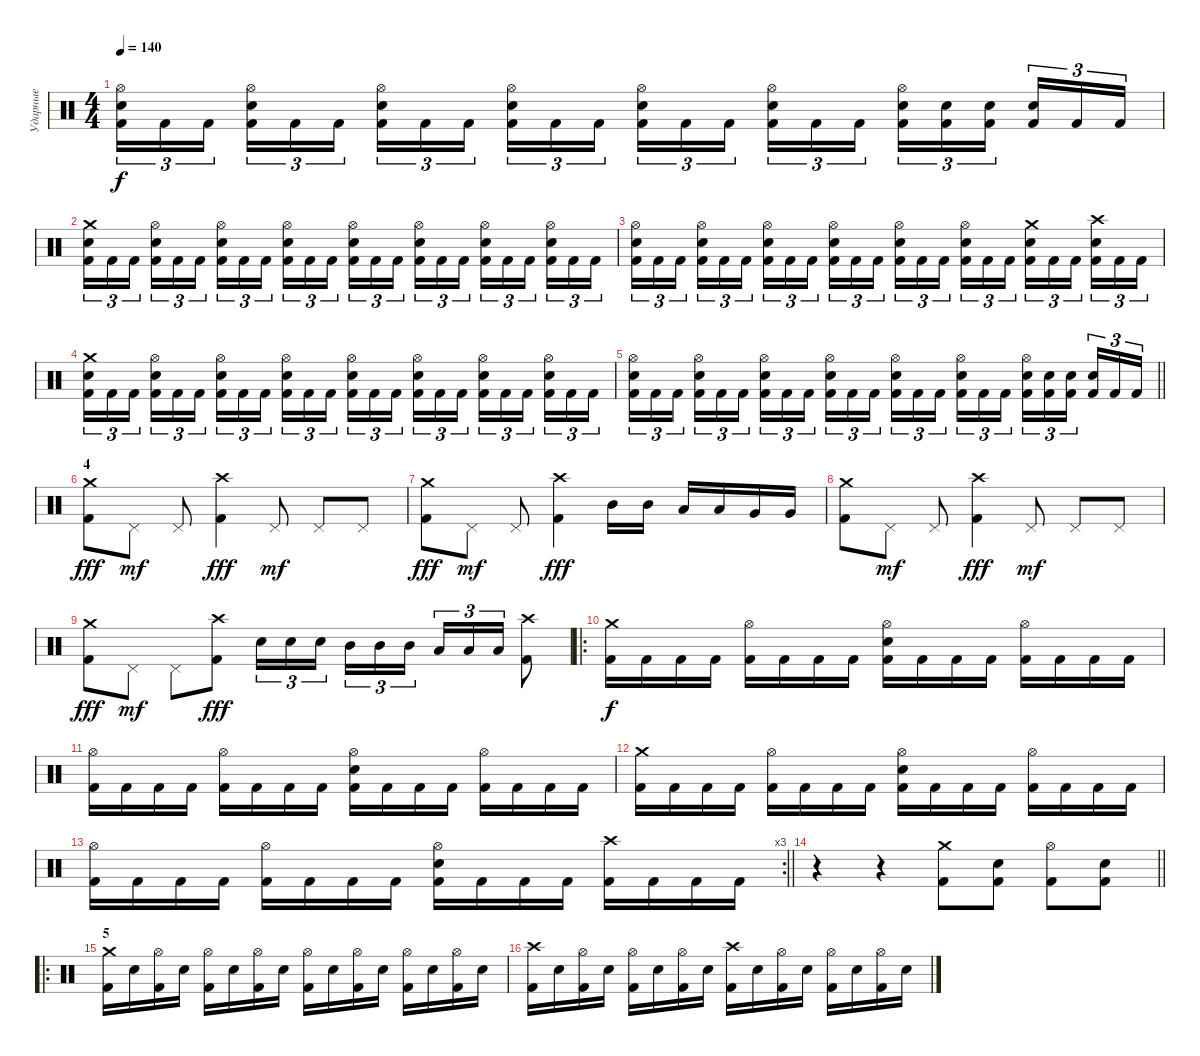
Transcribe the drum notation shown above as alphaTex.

\track ("Ударные" "Ударные") {instrument percussion}
\staff {score}
\articulation defaults
\ts (4 4)
\tempo 140
\clef neutral
\ks c
("Kick (hit) 2" "Electric Snare (hit)" "Hi-Hat (open)").16{tu (3 2) dy f} "Kick (hit) 2".16{tu (3 2)} "Kick (hit) 2".16{tu (3 2) beam splitsecondary} ("Kick (hit) 2" "Electric Snare (hit)" "Hi-Hat (open)").16{tu (3 2)} "Kick (hit) 2".16{tu (3 2)} "Kick (hit) 2".16{tu (3 2)} ("Kick (hit) 2" "Electric Snare (hit)" "Hi-Hat (open)").16{tu (3 2)} "Kick (hit) 2".16{tu (3 2)} "Kick (hit) 2".16{tu (3 2) beam splitsecondary} ("Kick (hit) 2" "Electric Snare (hit)" "Hi-Hat (open)").16{tu (3 2)} "Kick (hit) 2".16{tu (3 2)} "Kick (hit) 2".16{tu (3 2)} ("Kick (hit) 2" "Electric Snare (hit)" "Hi-Hat (open)").16{tu (3 2)} "Kick (hit) 2".16{tu (3 2)} "Kick (hit) 2".16{tu (3 2) beam splitsecondary} ("Kick (hit) 2" "Electric Snare (hit)" "Hi-Hat (open)").16{tu (3 2)} "Kick (hit) 2".16{tu (3 2)} "Kick (hit) 2".16{tu (3 2)} ("Kick (hit) 2" "Electric Snare (hit)" "Hi-Hat (open)").16{tu (3 2)} ("Kick (hit) 2" "Electric Snare (hit)").16{tu (3 2)} ("Kick (hit) 2" "Electric Snare (hit)").16{tu (3 2) beam splitsecondary} ("Kick (hit) 2" "Electric Snare (hit)").16{tu (3 2)} "Kick (hit) 2".16{tu (3 2)} "Kick (hit) 2".16{tu (3 2)} |
("Kick (hit) 2" "Electric Snare (hit)" "Crash medium (hit)").16{tu (3 2)} "Kick (hit) 2".16{tu (3 2)} "Kick (hit) 2".16{tu (3 2) beam splitsecondary} ("Kick (hit) 2" "Electric Snare (hit)" "Hi-Hat (open)").16{tu (3 2)} "Kick (hit) 2".16{tu (3 2)} "Kick (hit) 2".16{tu (3 2)} ("Kick (hit) 2" "Electric Snare (hit)" "Hi-Hat (open)").16{tu (3 2)} "Kick (hit) 2".16{tu (3 2)} "Kick (hit) 2".16{tu (3 2) beam splitsecondary} ("Kick (hit) 2" "Electric Snare (hit)" "Hi-Hat (open)").16{tu (3 2)} "Kick (hit) 2".16{tu (3 2)} "Kick (hit) 2".16{tu (3 2)} ("Kick (hit) 2" "Electric Snare (hit)" "Hi-Hat (open)").16{tu (3 2)} "Kick (hit) 2".16{tu (3 2)} "Kick (hit) 2".16{tu (3 2) beam splitsecondary} ("Kick (hit) 2" "Electric Snare (hit)" "Hi-Hat (open)").16{tu (3 2)} "Kick (hit) 2".16{tu (3 2)} "Kick (hit) 2".16{tu (3 2)} ("Kick (hit) 2" "Electric Snare (hit)" "Hi-Hat (open)").16{tu (3 2)} "Kick (hit) 2".16{tu (3 2)} "Kick (hit) 2".16{tu (3 2) beam splitsecondary} ("Kick (hit) 2" "Electric Snare (hit)" "Hi-Hat (open)").16{tu (3 2)} "Kick (hit) 2".16{tu (3 2)} "Kick (hit) 2".16{tu (3 2)} |
("Kick (hit) 2" "Electric Snare (hit)" "Hi-Hat (open)").16{tu (3 2)} "Kick (hit) 2".16{tu (3 2)} "Kick (hit) 2".16{tu (3 2) beam splitsecondary} ("Kick (hit) 2" "Electric Snare (hit)" "Hi-Hat (open)").16{tu (3 2)} "Kick (hit) 2".16{tu (3 2)} "Kick (hit) 2".16{tu (3 2)} ("Kick (hit) 2" "Electric Snare (hit)" "Hi-Hat (open)").16{tu (3 2)} "Kick (hit) 2".16{tu (3 2)} "Kick (hit) 2".16{tu (3 2) beam splitsecondary} ("Kick (hit) 2" "Electric Snare (hit)" "Hi-Hat (open)").16{tu (3 2)} "Kick (hit) 2".16{tu (3 2)} "Kick (hit) 2".16{tu (3 2)} ("Kick (hit) 2" "Electric Snare (hit)" "Hi-Hat (open)").16{tu (3 2)} "Kick (hit) 2".16{tu (3 2)} "Kick (hit) 2".16{tu (3 2) beam splitsecondary} ("Kick (hit) 2" "Electric Snare (hit)" "Hi-Hat (open)").16{tu (3 2)} "Kick (hit) 2".16{tu (3 2)} "Kick (hit) 2".16{tu (3 2)} ("Kick (hit) 2" "Electric Snare (hit)" "Crash medium (hit)").16{tu (3 2)} "Kick (hit) 2".16{tu (3 2)} "Kick (hit) 2".16{tu (3 2) beam splitsecondary} ("Kick (hit) 2" "Electric Snare (hit)" "Crash high (hit)").16{tu (3 2)} "Kick (hit) 2".16{tu (3 2)} "Kick (hit) 2".16{tu (3 2)} |
("Kick (hit) 2" "Electric Snare (hit)" "Crash medium (hit)").16{tu (3 2)} "Kick (hit) 2".16{tu (3 2)} "Kick (hit) 2".16{tu (3 2) beam splitsecondary} ("Kick (hit) 2" "Electric Snare (hit)" "Hi-Hat (open)").16{tu (3 2)} "Kick (hit) 2".16{tu (3 2)} "Kick (hit) 2".16{tu (3 2)} ("Kick (hit) 2" "Electric Snare (hit)" "Hi-Hat (open)").16{tu (3 2)} "Kick (hit) 2".16{tu (3 2)} "Kick (hit) 2".16{tu (3 2) beam splitsecondary} ("Kick (hit) 2" "Electric Snare (hit)" "Hi-Hat (open)").16{tu (3 2)} "Kick (hit) 2".16{tu (3 2)} "Kick (hit) 2".16{tu (3 2)} ("Kick (hit) 2" "Electric Snare (hit)" "Hi-Hat (open)").16{tu (3 2)} "Kick (hit) 2".16{tu (3 2)} "Kick (hit) 2".16{tu (3 2) beam splitsecondary} ("Kick (hit) 2" "Electric Snare (hit)" "Hi-Hat (open)").16{tu (3 2)} "Kick (hit) 2".16{tu (3 2)} "Kick (hit) 2".16{tu (3 2)} ("Kick (hit) 2" "Electric Snare (hit)" "Hi-Hat (open)").16{tu (3 2)} "Kick (hit) 2".16{tu (3 2)} "Kick (hit) 2".16{tu (3 2) beam splitsecondary} ("Kick (hit) 2" "Electric Snare (hit)" "Hi-Hat (open)").16{tu (3 2)} "Kick (hit) 2".16{tu (3 2)} "Kick (hit) 2".16{tu (3 2)} |
\barLineRight lightlight
("Kick (hit) 2" "Electric Snare (hit)" "Hi-Hat (open)").16{tu (3 2)} "Kick (hit) 2".16{tu (3 2)} "Kick (hit) 2".16{tu (3 2) beam splitsecondary} ("Kick (hit) 2" "Electric Snare (hit)" "Hi-Hat (open)").16{tu (3 2)} "Kick (hit) 2".16{tu (3 2)} "Kick (hit) 2".16{tu (3 2)} ("Kick (hit) 2" "Electric Snare (hit)" "Hi-Hat (open)").16{tu (3 2)} "Kick (hit) 2".16{tu (3 2)} "Kick (hit) 2".16{tu (3 2) beam splitsecondary} ("Kick (hit) 2" "Electric Snare (hit)" "Hi-Hat (open)").16{tu (3 2)} "Kick (hit) 2".16{tu (3 2)} "Kick (hit) 2".16{tu (3 2)} ("Kick (hit) 2" "Electric Snare (hit)" "Hi-Hat (open)").16{tu (3 2)} "Kick (hit) 2".16{tu (3 2)} "Kick (hit) 2".16{tu (3 2) beam splitsecondary} ("Kick (hit) 2" "Electric Snare (hit)" "Hi-Hat (open)").16{tu (3 2)} "Kick (hit) 2".16{tu (3 2)} "Kick (hit) 2".16{tu (3 2)} ("Kick (hit) 2" "Electric Snare (hit)" "Hi-Hat (open)").16{tu (3 2)} ("Kick (hit) 2" "Electric Snare (hit)").16{tu (3 2)} ("Kick (hit) 2" "Electric Snare (hit)").16{tu (3 2) beam splitsecondary} ("Kick (hit) 2" "Electric Snare (hit)").16{tu (3 2)} "Kick (hit) 2".16{tu (3 2)} "Kick (hit) 2".16{tu (3 2)} |
\section ("" "4")
("Kick (hit) 2" "Crash medium (hit)").8{dy fff} "Pedal Hi-Hat (hit)".8{dy mf} "Pedal Hi-Hat (hit)".8 ("Kick (hit) 2" "Crash high (hit)").4{dy fff} "Pedal Hi-Hat (hit)".8{dy mf} "Pedal Hi-Hat (hit)".8 "Pedal Hi-Hat (hit)".8 |
("Kick (hit) 2" "Crash medium (hit)").8{dy fff} "Pedal Hi-Hat (hit)".8{dy mf} "Pedal Hi-Hat (hit)".8 ("Kick (hit) 2" "Crash high (hit)").4{dy fff} "Mid Tom (hit)".16 "Mid Tom (hit)".16 "Low Tom (hit)".16 "Low Tom (hit)".16 "Very Low Tom (hit)".16 "Very Low Tom (hit)".16 |
("Kick (hit) 2" "Crash medium (hit)").8 "Pedal Hi-Hat (hit)".8{dy mf} "Pedal Hi-Hat (hit)".8 ("Kick (hit) 2" "Crash high (hit)").4{dy fff} "Pedal Hi-Hat (hit)".8{dy mf} "Pedal Hi-Hat (hit)".8 "Pedal Hi-Hat (hit)".8 |
("Kick (hit) 2" "Crash medium (hit)").8{dy fff} "Pedal Hi-Hat (hit)".8{dy mf} "Pedal Hi-Hat (hit)".8 ("Kick (hit) 2" "Crash high (hit)").8{dy fff} "Electric Snare (hit)".16{tu (3 2)} "Electric Snare (hit)".16{tu (3 2)} "Electric Snare (hit)".16{tu (3 2) beam splitsecondary} "Mid Tom (hit)".16{tu (3 2)} "Mid Tom (hit)".16{tu (3 2)} "Mid Tom (hit)".16{tu (3 2)} "Low Tom (hit)".16{tu (3 2)} "Low Tom (hit)".16{tu (3 2)} "Low Tom (hit)".16{tu (3 2)} ("Kick (hit) 2" "Crash high (hit)").8 |
\ro
("Kick (hit) 2" "Crash medium (hit)").16{dy f} "Kick (hit) 2".16 "Kick (hit) 2".16 "Kick (hit) 2".16 ("Kick (hit) 2" "Hi-Hat (open)").16 "Kick (hit) 2".16 "Kick (hit) 2".16 "Kick (hit) 2".16 ("Kick (hit) 2" "Electric Snare (hit)" "Hi-Hat (open)").16 "Kick (hit) 2".16 "Kick (hit) 2".16 "Kick (hit) 2".16 ("Kick (hit) 2" "Hi-Hat (open)").16 "Kick (hit) 2".16 "Kick (hit) 2".16 "Kick (hit) 2".16 |
("Kick (hit) 2" "Hi-Hat (open)").16 "Kick (hit) 2".16 "Kick (hit) 2".16 "Kick (hit) 2".16 ("Kick (hit) 2" "Hi-Hat (open)").16 "Kick (hit) 2".16 "Kick (hit) 2".16 "Kick (hit) 2".16 ("Kick (hit) 2" "Electric Snare (hit)" "Hi-Hat (open)").16 "Kick (hit) 2".16 "Kick (hit) 2".16 "Kick (hit) 2".16 ("Kick (hit) 2" "Hi-Hat (open)").16 "Kick (hit) 2".16 "Kick (hit) 2".16 "Kick (hit) 2".16 |
("Kick (hit) 2" "Crash medium (hit)").16 "Kick (hit) 2".16 "Kick (hit) 2".16 "Kick (hit) 2".16 ("Kick (hit) 2" "Hi-Hat (open)").16 "Kick (hit) 2".16 "Kick (hit) 2".16 "Kick (hit) 2".16 ("Kick (hit) 2" "Electric Snare (hit)" "Hi-Hat (open)").16 "Kick (hit) 2".16 "Kick (hit) 2".16 "Kick (hit) 2".16 ("Kick (hit) 2" "Hi-Hat (open)").16 "Kick (hit) 2".16 "Kick (hit) 2".16 "Kick (hit) 2".16 |
\rc 3
\barLineRight lightlight
("Kick (hit) 2" "Hi-Hat (open)").16 "Kick (hit) 2".16 "Kick (hit) 2".16 "Kick (hit) 2".16 ("Kick (hit) 2" "Hi-Hat (open)").16 "Kick (hit) 2".16 "Kick (hit) 2".16 "Kick (hit) 2".16 ("Kick (hit) 2" "Electric Snare (hit)" "Hi-Hat (open)").16 "Kick (hit) 2".16 "Kick (hit) 2".16 "Kick (hit) 2".16 ("Kick (hit) 2" "Crash high (hit)").16 "Kick (hit) 2".16 "Kick (hit) 2".16 "Kick (hit) 2".16 |
\barLineRight lightlight
r.4 r.4 ("Kick (hit) 2" "Crash medium (hit)").8 ("Kick (hit) 2" "Electric Snare (hit)").8 ("Kick (hit) 2" "Hi-Hat (open)").8 ("Kick (hit) 2" "Electric Snare (hit)").8 |
\ro
\section ("" "5")
("Kick (hit) 2" "Crash medium (hit)").16 "Electric Snare (hit)".16 ("Kick (hit) 2" "Hi-Hat (open)").16 "Electric Snare (hit)".16 ("Kick (hit) 2" "Hi-Hat (open)").16 "Electric Snare (hit)".16 ("Kick (hit) 2" "Hi-Hat (open)").16 "Electric Snare (hit)".16 ("Kick (hit) 2" "Hi-Hat (open)").16 "Electric Snare (hit)".16 ("Kick (hit) 2" "Hi-Hat (open)").16 "Electric Snare (hit)".16 ("Kick (hit) 2" "Hi-Hat (open)").16 "Electric Snare (hit)".16 ("Kick (hit) 2" "Hi-Hat (open)").16 "Electric Snare (hit)".16 |
("Kick (hit) 2" "Crash high (hit)").16 "Electric Snare (hit)".16 ("Kick (hit) 2" "Hi-Hat (open)").16 "Electric Snare (hit)".16 ("Kick (hit) 2" "Hi-Hat (open)").16 "Electric Snare (hit)".16 ("Kick (hit) 2" "Hi-Hat (open)").16 "Electric Snare (hit)".16 ("Kick (hit) 2" "Crash high (hit)").16 "Electric Snare (hit)".16 ("Kick (hit) 2" "Hi-Hat (open)").16 "Electric Snare (hit)".16 ("Kick (hit) 2" "Hi-Hat (open)").16 "Electric Snare (hit)".16 ("Kick (hit) 2" "Hi-Hat (open)").16 "Electric Snare (hit)".16
